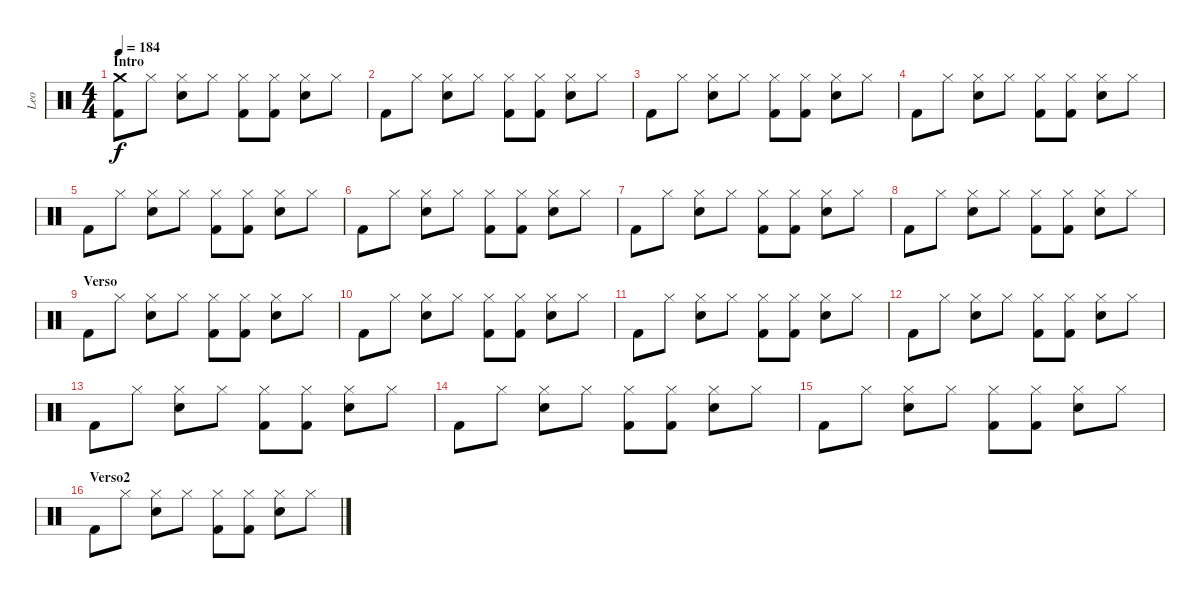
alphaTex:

\track ("Leo" "Leo") {instrument percussion}
\staff {score}
\articulation defaults
\ts (4 4)
\section ("" "Intro")
\tempo 184
\clef neutral
\ks c
("Kick (hit) 2" "Crash medium (hit)").8{dy f} "Hi-Hat (closed)".8 ("Hi-Hat (closed)" "Snare (hit) 2").8 "Hi-Hat (closed)".8 ("Kick (hit) 2" "Hi-Hat (closed)").8 ("Kick (hit) 2" "Hi-Hat (closed)").8 ("Hi-Hat (closed)" "Snare (hit) 2").8 "Hi-Hat (closed)".8 |
"Kick (hit) 2".8 "Hi-Hat (closed)".8 ("Hi-Hat (closed)" "Snare (hit) 2").8 "Hi-Hat (closed)".8 ("Kick (hit) 2" "Hi-Hat (closed)").8 ("Kick (hit) 2" "Hi-Hat (closed)").8 ("Hi-Hat (closed)" "Snare (hit) 2").8 "Hi-Hat (closed)".8 |
"Kick (hit) 2".8 "Hi-Hat (closed)".8 ("Hi-Hat (closed)" "Snare (hit) 2").8 "Hi-Hat (closed)".8 ("Kick (hit) 2" "Hi-Hat (closed)").8 ("Kick (hit) 2" "Hi-Hat (closed)").8 ("Hi-Hat (closed)" "Snare (hit) 2").8 "Hi-Hat (closed)".8 |
"Kick (hit) 2".8 "Hi-Hat (closed)".8 ("Hi-Hat (closed)" "Snare (hit) 2").8 "Hi-Hat (closed)".8 ("Kick (hit) 2" "Hi-Hat (closed)").8 ("Kick (hit) 2" "Hi-Hat (closed)").8 ("Hi-Hat (closed)" "Snare (hit) 2").8 "Hi-Hat (closed)".8 |
"Kick (hit) 2".8 "Hi-Hat (closed)".8 ("Hi-Hat (closed)" "Snare (hit) 2").8 "Hi-Hat (closed)".8 ("Kick (hit) 2" "Hi-Hat (closed)").8 ("Kick (hit) 2" "Hi-Hat (closed)").8 ("Hi-Hat (closed)" "Snare (hit) 2").8 "Hi-Hat (closed)".8 |
"Kick (hit) 2".8 "Hi-Hat (closed)".8 ("Hi-Hat (closed)" "Snare (hit) 2").8 "Hi-Hat (closed)".8 ("Kick (hit) 2" "Hi-Hat (closed)").8 ("Kick (hit) 2" "Hi-Hat (closed)").8 ("Hi-Hat (closed)" "Snare (hit) 2").8 "Hi-Hat (closed)".8 |
"Kick (hit) 2".8 "Hi-Hat (closed)".8 ("Hi-Hat (closed)" "Snare (hit) 2").8 "Hi-Hat (closed)".8 ("Kick (hit) 2" "Hi-Hat (closed)").8 ("Kick (hit) 2" "Hi-Hat (closed)").8 ("Hi-Hat (closed)" "Snare (hit) 2").8 "Hi-Hat (closed)".8 |
"Kick (hit) 2".8 "Hi-Hat (closed)".8 ("Hi-Hat (closed)" "Snare (hit) 2").8 "Hi-Hat (closed)".8 ("Kick (hit) 2" "Hi-Hat (closed)").8 ("Kick (hit) 2" "Hi-Hat (closed)").8 ("Hi-Hat (closed)" "Snare (hit) 2").8 "Hi-Hat (closed)".8 |
\section ("" "Verso")
"Kick (hit) 2".8 "Hi-Hat (closed)".8 ("Hi-Hat (closed)" "Snare (hit) 2").8 "Hi-Hat (closed)".8 ("Kick (hit) 2" "Hi-Hat (closed)").8 ("Kick (hit) 2" "Hi-Hat (closed)").8 ("Hi-Hat (closed)" "Snare (hit) 2").8 "Hi-Hat (closed)".8 |
"Kick (hit) 2".8 "Hi-Hat (closed)".8 ("Hi-Hat (closed)" "Snare (hit) 2").8 "Hi-Hat (closed)".8 ("Kick (hit) 2" "Hi-Hat (closed)").8 ("Kick (hit) 2" "Hi-Hat (closed)").8 ("Hi-Hat (closed)" "Snare (hit) 2").8 "Hi-Hat (closed)".8 |
"Kick (hit) 2".8 "Hi-Hat (closed)".8 ("Hi-Hat (closed)" "Snare (hit) 2").8 "Hi-Hat (closed)".8 ("Kick (hit) 2" "Hi-Hat (closed)").8 ("Kick (hit) 2" "Hi-Hat (closed)").8 ("Hi-Hat (closed)" "Snare (hit) 2").8 "Hi-Hat (closed)".8 |
"Kick (hit) 2".8 "Hi-Hat (closed)".8 ("Hi-Hat (closed)" "Snare (hit) 2").8 "Hi-Hat (closed)".8 ("Kick (hit) 2" "Hi-Hat (closed)").8 ("Kick (hit) 2" "Hi-Hat (closed)").8 ("Hi-Hat (closed)" "Snare (hit) 2").8 "Hi-Hat (closed)".8 |
"Kick (hit) 2".8 "Hi-Hat (closed)".8 ("Hi-Hat (closed)" "Snare (hit) 2").8 "Hi-Hat (closed)".8 ("Kick (hit) 2" "Hi-Hat (closed)").8 ("Kick (hit) 2" "Hi-Hat (closed)").8 ("Hi-Hat (closed)" "Snare (hit) 2").8 "Hi-Hat (closed)".8 |
"Kick (hit) 2".8 "Hi-Hat (closed)".8 ("Hi-Hat (closed)" "Snare (hit) 2").8 "Hi-Hat (closed)".8 ("Kick (hit) 2" "Hi-Hat (closed)").8 ("Kick (hit) 2" "Hi-Hat (closed)").8 ("Hi-Hat (closed)" "Snare (hit) 2").8 "Hi-Hat (closed)".8 |
"Kick (hit) 2".8 "Hi-Hat (closed)".8 ("Hi-Hat (closed)" "Snare (hit) 2").8 "Hi-Hat (closed)".8 ("Kick (hit) 2" "Hi-Hat (closed)").8 ("Kick (hit) 2" "Hi-Hat (closed)").8 ("Hi-Hat (closed)" "Snare (hit) 2").8 "Hi-Hat (closed)".8 |
\section ("" "Verso2")
"Kick (hit) 2".8 "Hi-Hat (closed)".8 ("Hi-Hat (closed)" "Snare (hit) 2").8 "Hi-Hat (closed)".8 ("Kick (hit) 2" "Hi-Hat (closed)").8 ("Kick (hit) 2" "Hi-Hat (closed)").8 ("Hi-Hat (closed)" "Snare (hit) 2").8 "Hi-Hat (closed)".8
